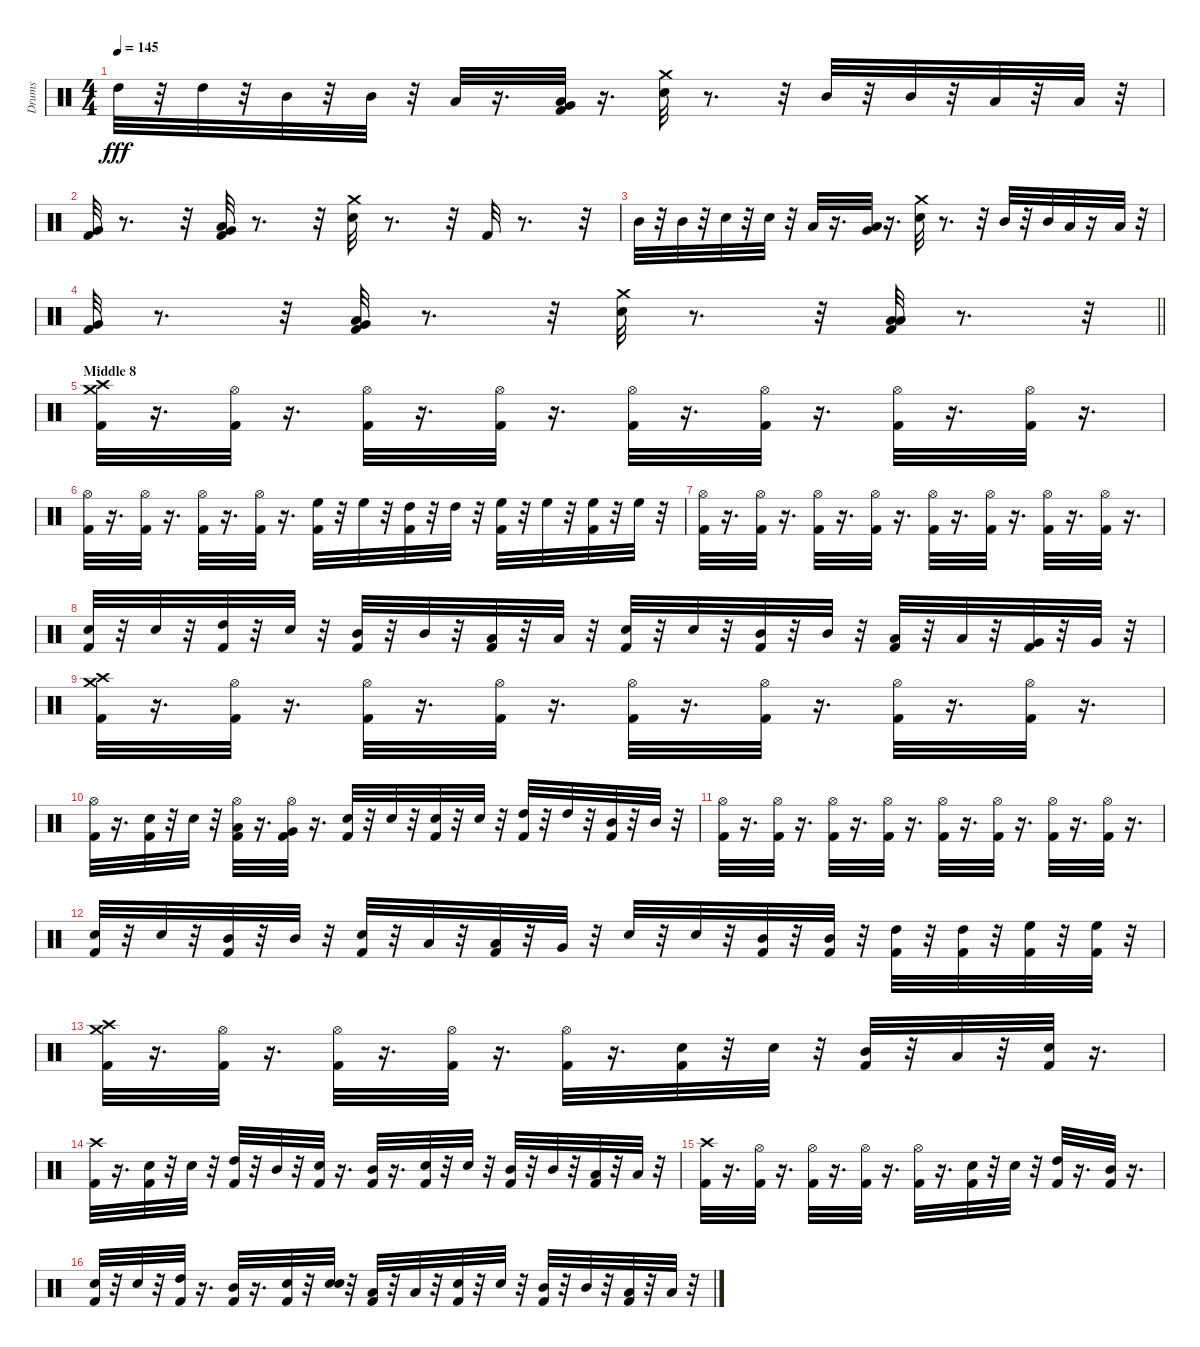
\track ("Drums" "Drums") {instrument percussion}
\staff {score}
\articulation defaults
\ts (4 4)
\tempo 145
\clef neutral
\ks c "High Tom (hit)".32{dy fff}
r.32 "High Tom (hit)".32 r.32 "Mid Tom (hit)".32 r.32 "Mid Tom (hit)".32 r.32 "Low Tom (hit)".32 r.16{d} ("Low Tom (hit)" "Very Low Tom (hit)" "Kick (hit) 2").32 r.16{d} ("Crash medium (hit)" "Snare (hit) 2").32 r.8{d} r.32 "Mid Tom (hit)".32 r.32 "Mid Tom (hit)".32 r.32 "Low Tom (hit)".32 r.32 "Low Tom (hit)".32 r.32 |
("Very Low Tom (hit)" "Kick (hit) 2").32 r.8{d} r.32 ("Very Low Tom (hit)" "Low Floor Tom (hit)" "Kick (hit) 2").32 r.8{d} r.32 ("Snare (hit) 2" "Crash medium (hit)").32 r.8{d} r.32 "Kick (hit) 2".32 r.8{d} r.32 |
"Mid Tom (hit)".32 r.32 "Mid Tom (hit)".32 r.32 "Snare (hit) 2".32 r.32 "Snare (hit) 2".32 r.32 "Low Tom (hit)".32 r.16{d} ("Very Low Tom (hit)" "Low Tom (hit)").32 r.16{d} ("Crash medium (hit)" "Snare (hit) 2").32 r.8{d} r.32 "Mid Tom (hit)".32 r.32 "Mid Tom (hit)".32 "Low Tom (hit)".32 r.16 "Low Tom (hit)".32 r.32 |
\barLineRight lightlight
("Kick (hit) 2" "Very Low Tom (hit)").32 r.8{d} r.32 ("Kick (hit) 2" "Very Low Tom (hit)" "Low Floor Tom (hit)").32 r.8{d} r.32 ("Crash medium (hit)" "Snare (hit) 2").32 r.8{d} r.32 ("Low Tom (hit)" "Low Floor Tom (hit)" "Kick (hit) 2").32 r.8{d} r.32 |
\section ("" "Middle 8")
("Crash medium (hit)" "Crash high (hit)" "Kick (hit) 2").32 r.16{d} ("Hi-Hat (open)" "Kick (hit) 2").32 r.16{d} ("Hi-Hat (open)" "Kick (hit) 2").32 r.16{d} ("Hi-Hat (open)" "Kick (hit) 2").32 r.16{d} ("Hi-Hat (open)" "Kick (hit) 2").32 r.16{d} ("Hi-Hat (open)" "Kick (hit) 2").32 r.16{d} ("Hi-Hat (open)" "Kick (hit) 2").32 r.16{d} ("Hi-Hat (open)" "Kick (hit) 2").32 r.16{d} |
("Hi-Hat (open)" "Kick (hit) 2").32 r.16{d} ("Hi-Hat (open)" "Kick (hit) 2").32 r.16{d} ("Hi-Hat (open)" "Kick (hit) 2").32 r.16{d} ("Hi-Hat (open)" "Kick (hit) 2").32 r.16{d} ("High Floor Tom (hit)" "Kick (hit) 2").32 r.32 "High Floor Tom (hit)".32 r.32 ("High Tom (hit)" "Kick (hit) 2").32 r.32 "High Tom (hit)".32 r.32 ("High Floor Tom (hit)" "Kick (hit) 2").32 r.32 "High Floor Tom (hit)".32 r.32 ("High Floor Tom (hit)" "Kick (hit) 2").32 r.32 "High Floor Tom (hit)".32 r.32 |
("Hi-Hat (open)" "Kick (hit) 2").32 r.16{d} ("Hi-Hat (open)" "Kick (hit) 2").32 r.16{d} ("Hi-Hat (open)" "Kick (hit) 2").32 r.16{d} ("Hi-Hat (open)" "Kick (hit) 2").32 r.16{d} ("Hi-Hat (open)" "Kick (hit) 2").32 r.16{d} ("Hi-Hat (open)" "Kick (hit) 2").32 r.16{d} ("Hi-Hat (open)" "Kick (hit) 2").32 r.16{d} ("Hi-Hat (open)" "Kick (hit) 2").32 r.16{d} |
("Snare (hit) 2" "Kick (hit) 2").32 r.32 "Snare (hit) 2".32 r.32 ("High Tom (hit)" "Kick (hit) 2").32 r.32 "Snare (hit) 2".32 r.32 ("Mid Tom (hit)" "Kick (hit) 2").32 r.32 "Mid Tom (hit)".32 r.32 ("Low Tom (hit)" "Kick (hit) 2").32 r.32 "Low Tom (hit)".32 r.32 ("Snare (hit) 2" "Kick (hit) 2").32 r.32 "Snare (hit) 2".32 r.32 ("Mid Tom (hit)" "Kick (hit) 2").32 r.32 "Mid Tom (hit)".32 r.32 ("Low Tom (hit)" "Kick (hit) 2").32 r.32 "Low Tom (hit)".32 r.32 ("Very Low Tom (hit)" "Kick (hit) 2").32 r.32 "Very Low Tom (hit)".32 r.32 |
("Crash medium (hit)" "Crash high (hit)" "Kick (hit) 2").32 r.16{d} ("Hi-Hat (open)" "Kick (hit) 2").32 r.16{d} ("Hi-Hat (open)" "Kick (hit) 2").32 r.16{d} ("Hi-Hat (open)" "Kick (hit) 2").32 r.16{d} ("Hi-Hat (open)" "Kick (hit) 2").32 r.16{d} ("Hi-Hat (open)" "Kick (hit) 2").32 r.16{d} ("Hi-Hat (open)" "Kick (hit) 2").32 r.16{d} ("Hi-Hat (open)" "Kick (hit) 2").32 r.16{d} |
("Hi-Hat (open)" "Kick (hit) 2").32 r.16{d} ("Snare (hit) 2" "Kick (hit) 2").32 r.32 "Snare (hit) 2".32 r.32 ("Hi-Hat (open)" "Low Tom (hit)" "Kick (hit) 2").32 r.16{d} ("Hi-Hat (open)" "Very Low Tom (hit)" "Kick (hit) 2").32 r.16{d} ("Snare (hit) 2" "Kick (hit) 2").32 r.32 "Snare (hit) 2".32 r.32 ("Snare (hit) 2" "Kick (hit) 2").32 r.32 "Snare (hit) 2".32 r.32 ("High Tom (hit)" "Kick (hit) 2").32 r.32 "High Tom (hit)".32 r.32 ("Mid Tom (hit)" "Kick (hit) 2").32 r.32 "Mid Tom (hit)".32 r.32 |
("Hi-Hat (open)" "Kick (hit) 2").32 r.16{d} ("Hi-Hat (open)" "Kick (hit) 2").32 r.16{d} ("Hi-Hat (open)" "Kick (hit) 2").32 r.16{d} ("Hi-Hat (open)" "Kick (hit) 2").32 r.16{d} ("Hi-Hat (open)" "Kick (hit) 2").32 r.16{d} ("Hi-Hat (open)" "Kick (hit) 2").32 r.16{d} ("Hi-Hat (open)" "Kick (hit) 2").32 r.16{d} ("Hi-Hat (open)" "Kick (hit) 2").32 r.16{d} |
("Kick (hit) 2" "Snare (hit) 2").32 r.32 "Snare (hit) 2".32 r.32 ("Mid Tom (hit)" "Kick (hit) 2").32 r.32 "Mid Tom (hit)".32 r.32 ("Snare (hit) 2" "Kick (hit) 2").32 r.32 "Low Tom (hit)".32 r.32 ("Low Tom (hit)" "Kick (hit) 2").32 r.32 "Very Low Tom (hit)".32 r.32 "Snare (hit) 2".32 r.32 "Snare (hit) 2".32 r.32 ("Mid Tom (hit)" "Kick (hit) 2").32 r.32 ("Kick (hit) 2" "Mid Tom (hit)").32 r.32 ("High Tom (hit)" "Kick (hit) 2").32 r.32 ("Kick (hit) 2" "High Tom (hit)").32 r.32 ("High Floor Tom (hit)" "Kick (hit) 2").32 r.32 ("Kick (hit) 2" "High Floor Tom (hit)").32 r.32 |
("Crash medium (hit)" "Crash high (hit)" "Kick (hit) 2").32 r.16{d} ("Hi-Hat (open)" "Kick (hit) 2").32 r.16{d} ("Hi-Hat (open)" "Kick (hit) 2").32 r.16{d} ("Hi-Hat (open)" "Kick (hit) 2").32 r.16{d} ("Hi-Hat (open)" "Kick (hit) 2").32 r.16{d} ("Snare (hit) 2" "Kick (hit) 2").32 r.32 "Snare (hit) 2".32 r.32 ("Mid Tom (hit)" "Kick (hit) 2").32 r.32 "Low Tom (hit)".32 r.32 ("Snare (hit) 2" "Kick (hit) 2").32 r.16{d} |
("Crash high (hit)" "Kick (hit) 2").32 r.16{d} ("Snare (hit) 2" "Kick (hit) 2").32 r.32 "Snare (hit) 2".32 r.32 ("High Tom (hit)" "Kick (hit) 2").32 r.32 "Mid Tom (hit)".32 r.32 ("Snare (hit) 2" "Kick (hit) 2").32 r.16{d} ("Mid Tom (hit)" "Kick (hit) 2").32 r.16{d} ("Snare (hit) 2" "Kick (hit) 2").32 r.32 "Snare (hit) 2".32 r.32 ("Mid Tom (hit)" "Kick (hit) 2").32 r.32 "Mid Tom (hit)".32 r.32 ("Low Tom (hit)" "Kick (hit) 2").32 r.32 "Low Tom (hit)".32 r.32 |
("Crash high (hit)" "Kick (hit) 2").32 r.16{d} ("Hi-Hat (open)" "Kick (hit) 2").32 r.16{d} ("Hi-Hat (open)" "Kick (hit) 2").32 r.16{d} ("Hi-Hat (open)" "Kick (hit) 2").32 r.16{d} ("Hi-Hat (open)" "Kick (hit) 2").32 r.16{d} ("Snare (hit) 2" "Kick (hit) 2").32 r.32 "Snare (hit) 2".32 r.32 ("High Tom (hit)" "Kick (hit) 2").32 r.16{d} ("Mid Tom (hit)" "Kick (hit) 2").32 r.16{d} |
("Snare (hit) 2" "Kick (hit) 2").32 r.32 "Snare (hit) 2".32 r.32 ("High Tom (hit)" "Kick (hit) 2").32 r.16{d} ("Mid Tom (hit)" "Kick (hit) 2").32 r.16{d} ("Snare (hit) 2" "Kick (hit) 2").32 r.32 ("Snare (hit) 2" "Snare (hit) 2").32 r.32 ("Low Tom (hit)" "Kick (hit) 2").32 r.32 "Low Tom (hit)".32 r.32 ("Snare (hit) 2" "Kick (hit) 2").32 r.32 "Snare (hit) 2".32 r.32 ("Mid Tom (hit)" "Kick (hit) 2").32 r.32 "Mid Tom (hit)".32 r.32 ("Low Tom (hit)" "Kick (hit) 2").32 r.32 "Low Tom (hit)".32 r.32
